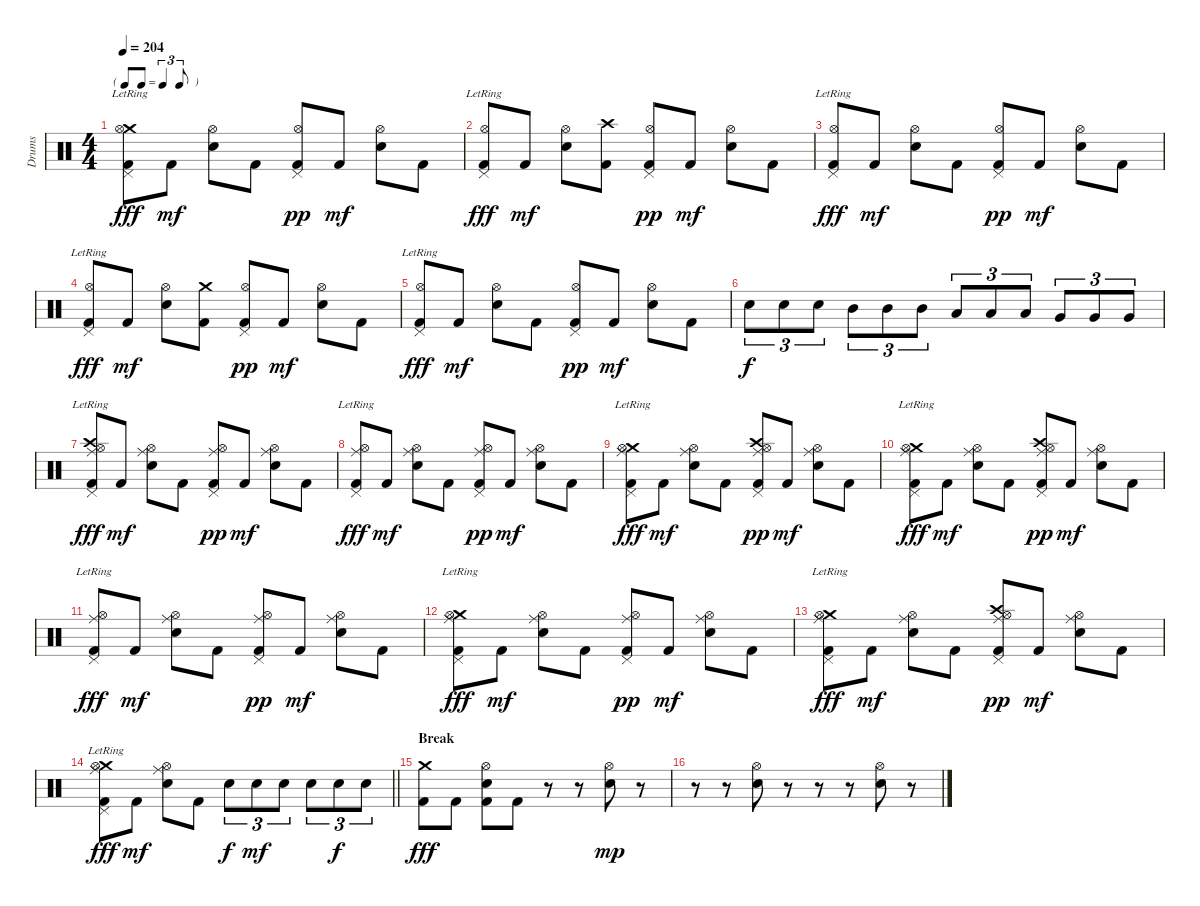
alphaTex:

\track ("Drums" "Drums") {instrument percussion}
\staff {score}
\articulation defaults
\ts (4 4)
\tf triplet8th
\tempo 204
\clef neutral
\ks c
("Crash medium (hit)" "Pedal Hi-Hat (hit)" "Hi-Hat (open)" "Kick (hit) 2"{lr}).8{dy fff} "Kick (hit) 2".8{dy mf} ("Hi-Hat (open)" "Electric Snare (hit)").8 "Kick (hit) 2".8 ("Pedal Hi-Hat (hit)" "Hi-Hat (open)" "Kick (hit) 2").8{dy pp} "Kick (hit) 2".8{dy mf} ("Hi-Hat (open)" "Electric Snare (hit)").8 "Kick (hit) 2".8 |
("Pedal Hi-Hat (hit)" "Hi-Hat (open)" "Kick (hit) 2"{lr}).8{dy fff} "Kick (hit) 2".8{dy mf} ("Hi-Hat (open)" "Electric Snare (hit)").8 ("Crash high (hit)" "Kick (hit) 2").8 ("Pedal Hi-Hat (hit)" "Hi-Hat (open)" "Kick (hit) 2").8{dy pp} "Kick (hit) 2".8{dy mf} ("Hi-Hat (open)" "Electric Snare (hit)").8 "Kick (hit) 2".8 |
("Pedal Hi-Hat (hit)" "Hi-Hat (open)" "Kick (hit) 2"{lr}).8{dy fff} "Kick (hit) 2".8{dy mf} ("Hi-Hat (open)" "Electric Snare (hit)").8 "Kick (hit) 2".8 ("Pedal Hi-Hat (hit)" "Hi-Hat (open)" "Kick (hit) 2").8{dy pp} "Kick (hit) 2".8{dy mf} ("Hi-Hat (open)" "Electric Snare (hit)").8 "Kick (hit) 2".8 |
("Pedal Hi-Hat (hit)" "Hi-Hat (open)" "Kick (hit) 2"{lr}).8{dy fff} "Kick (hit) 2".8{dy mf} ("Hi-Hat (open)" "Electric Snare (hit)").8 ("Crash medium (hit)" "Kick (hit) 2").8 ("Pedal Hi-Hat (hit)" "Hi-Hat (open)" "Kick (hit) 2").8{dy pp} "Kick (hit) 2".8{dy mf} ("Hi-Hat (open)" "Electric Snare (hit)").8 "Kick (hit) 2".8 |
("Pedal Hi-Hat (hit)" "Hi-Hat (open)" "Kick (hit) 2"{lr}).8{dy fff} "Kick (hit) 2".8{dy mf} ("Hi-Hat (open)" "Electric Snare (hit)").8 "Kick (hit) 2".8 ("Pedal Hi-Hat (hit)" "Hi-Hat (open)" "Kick (hit) 2").8{dy pp} "Kick (hit) 2".8{dy mf} ("Hi-Hat (open)" "Electric Snare (hit)").8 "Kick (hit) 2".8 |
"Electric Snare (hit)".8{tu (3 2) dy f} "Electric Snare (hit)".8{tu (3 2)} "Electric Snare (hit)".8{tu (3 2)} "Mid Tom (hit)".8{tu (3 2)} "Mid Tom (hit)".8{tu (3 2)} "Mid Tom (hit)".8{tu (3 2)} "Low Tom (hit)".8{tu (3 2)} "Low Tom (hit)".8{tu (3 2)} "Low Tom (hit)".8{tu (3 2)} "Very Low Tom (hit)".8{tu (3 2)} "Very Low Tom (hit)".8{tu (3 2)} "Very Low Tom (hit)".8{tu (3 2)} |
("Crash high (hit)" "Ride (middle)" "Pedal Hi-Hat (hit)" "Hi-Hat (open)" "Kick (hit) 2"{lr}).8{dy fff} "Kick (hit) 2".8{dy mf} ("Ride (middle)" "Hi-Hat (open)" "Electric Snare (hit)").8 "Kick (hit) 2".8 ("Ride (middle)" "Pedal Hi-Hat (hit)" "Hi-Hat (open)" "Kick (hit) 2").8{dy pp} "Kick (hit) 2".8{dy mf} ("Ride (middle)" "Hi-Hat (open)" "Electric Snare (hit)").8 "Kick (hit) 2".8 |
("Ride (middle)" "Pedal Hi-Hat (hit)" "Hi-Hat (open)" "Kick (hit) 2"{lr}).8{dy fff} "Kick (hit) 2".8{dy mf} ("Ride (middle)" "Hi-Hat (open)" "Electric Snare (hit)").8 "Kick (hit) 2".8 ("Ride (middle)" "Pedal Hi-Hat (hit)" "Hi-Hat (open)" "Kick (hit) 2").8{dy pp} "Kick (hit) 2".8{dy mf} ("Ride (middle)" "Hi-Hat (open)" "Electric Snare (hit)").8 "Kick (hit) 2".8 |
("Crash medium (hit)" "Ride (middle)" "Pedal Hi-Hat (hit)" "Hi-Hat (open)" "Kick (hit) 2"{lr}).8{dy fff} "Kick (hit) 2".8{dy mf} ("Ride (middle)" "Hi-Hat (open)" "Electric Snare (hit)").8 "Kick (hit) 2".8 ("Crash high (hit)" "Ride (middle)" "Pedal Hi-Hat (hit)" "Hi-Hat (open)" "Kick (hit) 2").8{dy pp} "Kick (hit) 2".8{dy mf} ("Ride (middle)" "Hi-Hat (open)" "Electric Snare (hit)").8 "Kick (hit) 2".8 |
("Crash medium (hit)" "Ride (middle)" "Pedal Hi-Hat (hit)" "Hi-Hat (open)" "Kick (hit) 2"{lr}).8{dy fff} "Kick (hit) 2".8{dy mf} ("Ride (middle)" "Hi-Hat (open)" "Electric Snare (hit)").8 "Kick (hit) 2".8 ("Crash high (hit)" "Ride (middle)" "Pedal Hi-Hat (hit)" "Hi-Hat (open)" "Kick (hit) 2").8{dy pp} "Kick (hit) 2".8{dy mf} ("Ride (middle)" "Hi-Hat (open)" "Electric Snare (hit)").8 "Kick (hit) 2".8 |
("Ride (middle)" "Pedal Hi-Hat (hit)" "Hi-Hat (open)" "Kick (hit) 2"{lr}).8{dy fff} "Kick (hit) 2".8{dy mf} ("Ride (middle)" "Hi-Hat (open)" "Electric Snare (hit)").8 "Kick (hit) 2".8 ("Ride (middle)" "Pedal Hi-Hat (hit)" "Hi-Hat (open)" "Kick (hit) 2").8{dy pp} "Kick (hit) 2".8{dy mf} ("Ride (middle)" "Hi-Hat (open)" "Electric Snare (hit)").8 "Kick (hit) 2".8 |
("Crash medium (hit)" "Ride (middle)" "Pedal Hi-Hat (hit)" "Hi-Hat (open)" "Kick (hit) 2"{lr}).8{dy fff} "Kick (hit) 2".8{dy mf} ("Ride (middle)" "Hi-Hat (open)" "Electric Snare (hit)").8 "Kick (hit) 2".8 ("Ride (middle)" "Pedal Hi-Hat (hit)" "Hi-Hat (open)" "Kick (hit) 2").8{dy pp} "Kick (hit) 2".8{dy mf} ("Ride (middle)" "Hi-Hat (open)" "Electric Snare (hit)").8 "Kick (hit) 2".8 |
("Crash medium (hit)" "Ride (middle)" "Pedal Hi-Hat (hit)" "Hi-Hat (open)" "Kick (hit) 2"{lr}).8{dy fff} "Kick (hit) 2".8{dy mf} ("Ride (middle)" "Hi-Hat (open)" "Electric Snare (hit)").8 "Kick (hit) 2".8 ("Crash high (hit)" "Ride (middle)" "Pedal Hi-Hat (hit)" "Hi-Hat (open)" "Kick (hit) 2").8{dy pp} "Kick (hit) 2".8{dy mf} ("Ride (middle)" "Hi-Hat (open)" "Electric Snare (hit)").8 "Kick (hit) 2".8 |
\barLineRight lightlight
("Crash medium (hit)" "Ride (middle)" "Pedal Hi-Hat (hit)" "Hi-Hat (open)" "Kick (hit) 2"{lr}).8{dy fff} "Kick (hit) 2".8{dy mf} ("Ride (middle)" "Hi-Hat (open)" "Electric Snare (hit)").8 "Kick (hit) 2".8 "Electric Snare (hit)".8{tu (3 2) dy f} "Electric Snare (hit)".8{tu (3 2) dy mf} "Electric Snare (hit)".8{tu (3 2)} "Electric Snare (hit)".8{tu (3 2)} "Electric Snare (hit)".8{tu (3 2) dy f} "Electric Snare (hit)".8{tu (3 2)} |
\section ("" "Break")
("Crash medium (hit)" "Kick (hit) 2").8{dy fff} "Kick (hit) 2".8 ("Electric Snare (hit)" "Hi-Hat (open)" "Kick (hit) 2").8 "Kick (hit) 2".8 r.8 r.8 ("Electric Snare (hit)" "Hi-Hat (open)").8{dy mp} r.8 |
r.8 r.8 ("Electric Snare (hit)" "Hi-Hat (open)").8 r.8 r.8 r.8 ("Electric Snare (hit)" "Hi-Hat (open)").8 r.8
